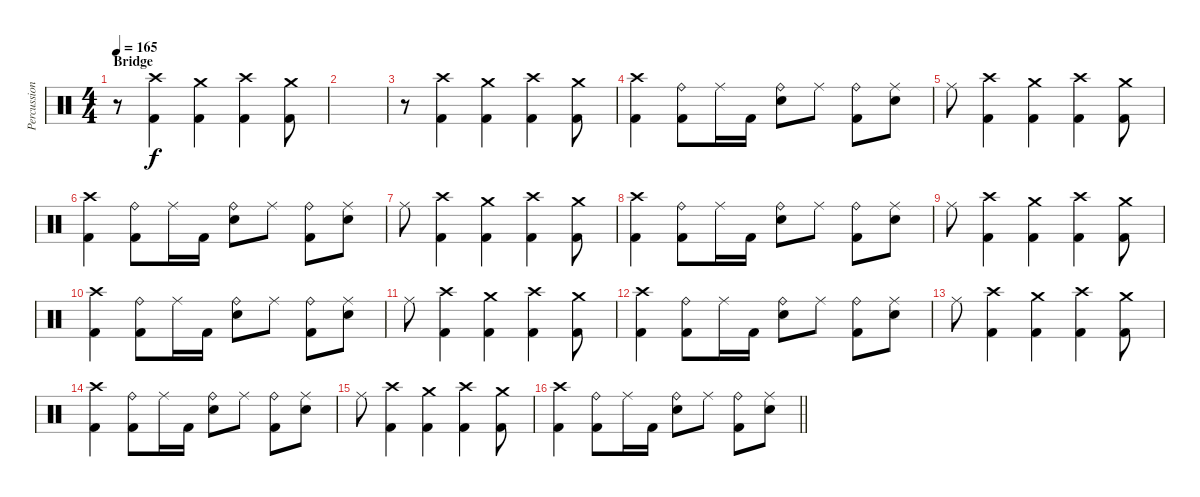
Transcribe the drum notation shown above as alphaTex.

\track ("Percussion" "Percussion") {instrument percussion}
\staff {score}
\articulation defaults
\ts (4 4)
\section ("" "Bridge")
\tempo 165
\clef neutral
\ks c
r.8{dy f} ("Crash high (hit)" "Kick (hit) 2").4 ("Crash medium (hit)" "Kick (hit) 2").4 ("Crash high (hit)" "Kick (hit) 2").4 ("Crash medium (hit)" "Kick (hit) 2").8 |
|
r.8 ("Crash high (hit)" "Kick (hit) 2").4 ("Crash medium (hit)" "Kick (hit) 2").4 ("Crash high (hit)" "Kick (hit) 2").4 ("Crash medium (hit)" "Kick (hit) 2").8 |
("Crash high (hit)" "Kick (hit) 2").4 ("Ride (bell)" "Kick (hit) 2").8 "Ride (middle)".16 "Kick (hit) 2".16 ("Ride (bell)" "Electric Snare (hit)").8 "Ride (middle)".8 ("Ride (bell)" "Kick (hit) 2").8 ("Ride (middle)" "Electric Snare (hit)").8 |
"Ride (middle)".8 ("Crash high (hit)" "Kick (hit) 2").4 ("Crash medium (hit)" "Kick (hit) 2").4 ("Crash high (hit)" "Kick (hit) 2").4 ("Crash medium (hit)" "Kick (hit) 2").8 |
("Crash high (hit)" "Kick (hit) 2").4 ("Ride (bell)" "Kick (hit) 2").8 "Ride (middle)".16 "Kick (hit) 2".16 ("Ride (bell)" "Electric Snare (hit)").8 "Ride (middle)".8 ("Ride (bell)" "Kick (hit) 2").8 ("Ride (middle)" "Electric Snare (hit)").8 |
"Ride (middle)".8 ("Crash high (hit)" "Kick (hit) 2").4 ("Crash medium (hit)" "Kick (hit) 2").4 ("Crash high (hit)" "Kick (hit) 2").4 ("Crash medium (hit)" "Kick (hit) 2").8 |
("Crash high (hit)" "Kick (hit) 2").4 ("Ride (bell)" "Kick (hit) 2").8 "Ride (middle)".16 "Kick (hit) 2".16 ("Ride (bell)" "Electric Snare (hit)").8 "Ride (middle)".8 ("Ride (bell)" "Kick (hit) 2").8 ("Ride (middle)" "Electric Snare (hit)").8 |
"Ride (middle)".8 ("Crash high (hit)" "Kick (hit) 2").4 ("Crash medium (hit)" "Kick (hit) 2").4 ("Crash high (hit)" "Kick (hit) 2").4 ("Crash medium (hit)" "Kick (hit) 2").8 |
("Crash high (hit)" "Kick (hit) 2").4 ("Ride (bell)" "Kick (hit) 2").8 "Ride (middle)".16 "Kick (hit) 2".16 ("Ride (bell)" "Electric Snare (hit)").8 "Ride (middle)".8 ("Ride (bell)" "Kick (hit) 2").8 ("Ride (middle)" "Electric Snare (hit)").8 |
"Ride (middle)".8 ("Crash high (hit)" "Kick (hit) 2").4 ("Crash medium (hit)" "Kick (hit) 2").4 ("Crash high (hit)" "Kick (hit) 2").4 ("Crash medium (hit)" "Kick (hit) 2").8 |
("Crash high (hit)" "Kick (hit) 2").4 ("Ride (bell)" "Kick (hit) 2").8 "Ride (middle)".16 "Kick (hit) 2".16 ("Ride (bell)" "Electric Snare (hit)").8 "Ride (middle)".8 ("Ride (bell)" "Kick (hit) 2").8 ("Ride (middle)" "Electric Snare (hit)").8 |
"Ride (middle)".8 ("Crash high (hit)" "Kick (hit) 2").4 ("Crash medium (hit)" "Kick (hit) 2").4 ("Crash high (hit)" "Kick (hit) 2").4 ("Crash medium (hit)" "Kick (hit) 2").8 |
("Crash high (hit)" "Kick (hit) 2").4 ("Ride (bell)" "Kick (hit) 2").8 "Ride (middle)".16 "Kick (hit) 2".16 ("Ride (bell)" "Electric Snare (hit)").8 "Ride (middle)".8 ("Ride (bell)" "Kick (hit) 2").8 ("Ride (middle)" "Electric Snare (hit)").8 |
"Ride (middle)".8 ("Crash high (hit)" "Kick (hit) 2").4 ("Crash medium (hit)" "Kick (hit) 2").4 ("Crash high (hit)" "Kick (hit) 2").4 ("Crash medium (hit)" "Kick (hit) 2").8 |
\barLineRight lightlight
("Crash high (hit)" "Kick (hit) 2").4 ("Ride (bell)" "Kick (hit) 2").8 "Ride (middle)".16 "Kick (hit) 2".16 ("Ride (bell)" "Electric Snare (hit)").8 "Ride (middle)".8 ("Ride (bell)" "Kick (hit) 2").8 ("Ride (middle)" "Electric Snare (hit)").8
